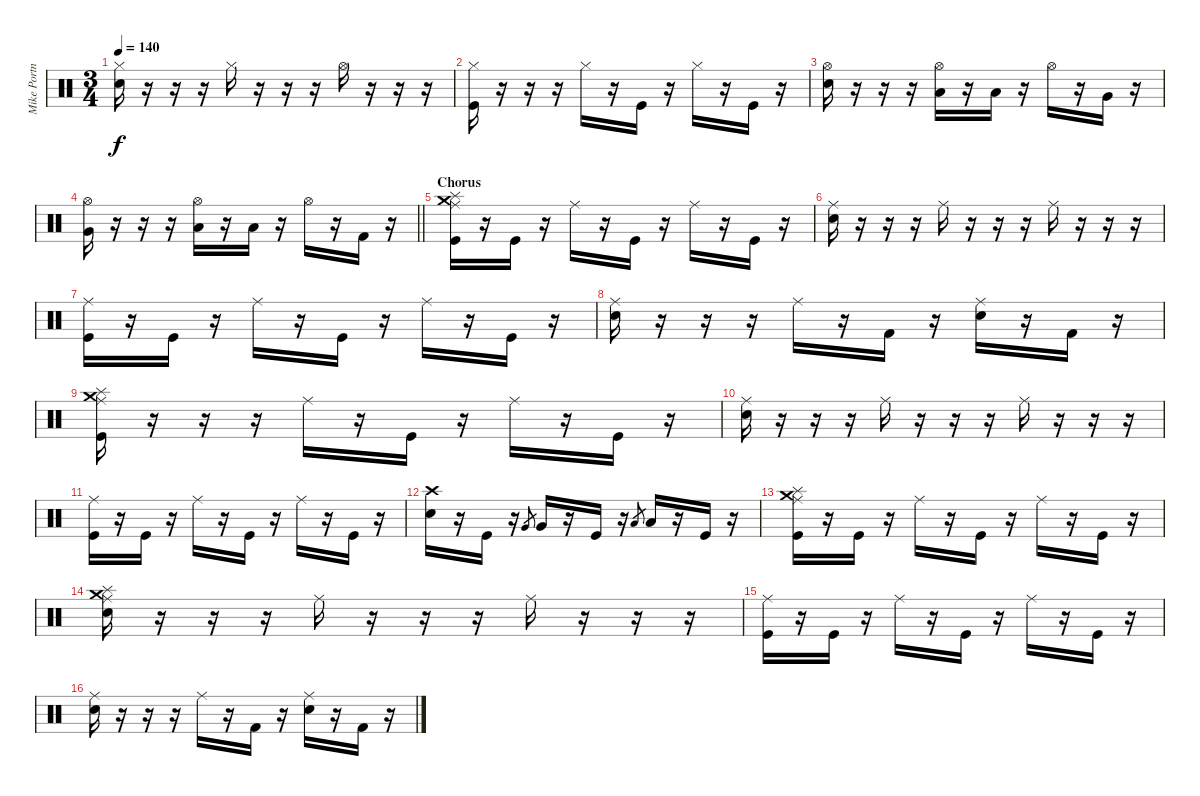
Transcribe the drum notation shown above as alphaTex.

\track ("Mike Portnoy" "Mike Portn") {instrument percussion}
\staff {score}
\articulation defaults
\ts (3 4)
\tempo 140
\clef neutral
\ks c
("Electric Snare (hit)" "Hi-Hat (closed)").16{dy f} r.16 r.16 r.16 "Hi-Hat (closed)".16 r.16 r.16 r.16 "Hi-Hat (open)".16 r.16 r.16 r.16 |
("Kick (hit)" "Hi-Hat (closed)").16 r.16 r.16 r.16 "Hi-Hat (closed)".16 r.16 "Kick (hit)".16 r.16 "Hi-Hat (closed)".16 r.16 "Kick (hit)".16 r.16 |
("Electric Snare (hit)" "Hi-Hat (open)").16 r.16 r.16 r.16 ("Low Tom (hit)" "Hi-Hat (open)").16 r.16 "Low Tom (hit)".16 r.16 "Hi-Hat (open)".16 r.16 "Very Low Tom (hit)".16 r.16 |
\barLineRight lightlight
("Very Low Tom (hit)" "Hi-Hat (open)").16 r.16 r.16 r.16 ("Low Floor Tom (hit)" "Hi-Hat (open)").16 r.16 "Low Floor Tom (hit)".16 r.16 "Hi-Hat (open)".16 r.16 "Kick (hit) 2".16 r.16 |
\section ("" "Chorus")
("Kick (hit)" "Crash medium (hit)" "Splash (hit)" "Ride (middle)").16 r.16 "Kick (hit)".16 r.16 "Ride (middle)".16 r.16 "Kick (hit)".16 r.16 "Ride (middle)".16 r.16 "Kick (hit)".16 r.16 |
("Electric Snare (hit)" "Ride (middle)").16 r.16 r.16 r.16 "Ride (middle)".16 r.16 r.16 r.16 "Ride (middle)".16 r.16 r.16 r.16 |
("Kick (hit)" "Ride (middle)").16 r.16 "Kick (hit)".16 r.16 "Ride (middle)".16 r.16 "Kick (hit)".16 r.16 "Ride (middle)".16 r.16 "Kick (hit)".16 r.16 |
("Electric Snare (hit)" "Ride (middle)").16 r.16 r.16 r.16 "Ride (middle)".16 r.16 "Kick (hit) 2".16 r.16 ("Electric Snare (hit)" "Ride (middle)").16 r.16 "Kick (hit) 2".16 r.16 |
("Kick (hit)" "Crash medium (hit)" "Splash (hit)" "Ride (middle)").16 r.16 r.16 r.16 "Ride (middle)".16 r.16 "Kick (hit)".16 r.16 "Ride (middle)".16 r.16 "Kick (hit)".16 r.16 |
("Electric Snare (hit)" "Ride (middle)").16 r.16 r.16 r.16 "Ride (middle)".16 r.16 r.16 r.16 "Ride (middle)".16 r.16 r.16 r.16 |
("Kick (hit)" "Ride (middle)").16 r.16 "Kick (hit)".16 r.16 "Ride (middle)".16 r.16 "Kick (hit)".16 r.16 "Ride (middle)".16 r.16 "Kick (hit)".16 r.16 |
("Electric Snare (hit)" "Crash high (hit)").16 r.16 "Kick (hit)".16 r.16 "Very Low Tom (hit)".8{gr} "Very Low Tom (hit)".16 r.16 "Kick (hit)".16 r.16 "Low Floor Tom (hit)".8{gr} "Low Floor Tom (hit)".16 r.16 "Kick (hit)".16 r.16 |
("Kick (hit)" "Crash medium (hit)" "Splash (hit)" "Ride (middle)").16 r.16 "Kick (hit)".16 r.16 "Ride (middle)".16 r.16 "Kick (hit)".16 r.16 "Ride (middle)".16 r.16 "Kick (hit)".16 r.16 |
("Electric Snare (hit)" "Crash medium (hit)" "Splash (hit)" "Ride (middle)").16 r.16 r.16 r.16 "Ride (middle)".16 r.16 r.16 r.16 "Ride (middle)".16 r.16 r.16 r.16 |
("Kick (hit)" "Ride (middle)").16 r.16 "Kick (hit)".16 r.16 "Ride (middle)".16 r.16 "Kick (hit)".16 r.16 "Ride (middle)".16 r.16 "Kick (hit)".16 r.16 |
("Electric Snare (hit)" "Ride (middle)").16 r.16 r.16 r.16 "Ride (middle)".16 r.16 "Kick (hit) 2".16 r.16 ("Electric Snare (hit)" "Ride (middle)").16 r.16 "Kick (hit) 2".16 r.16
